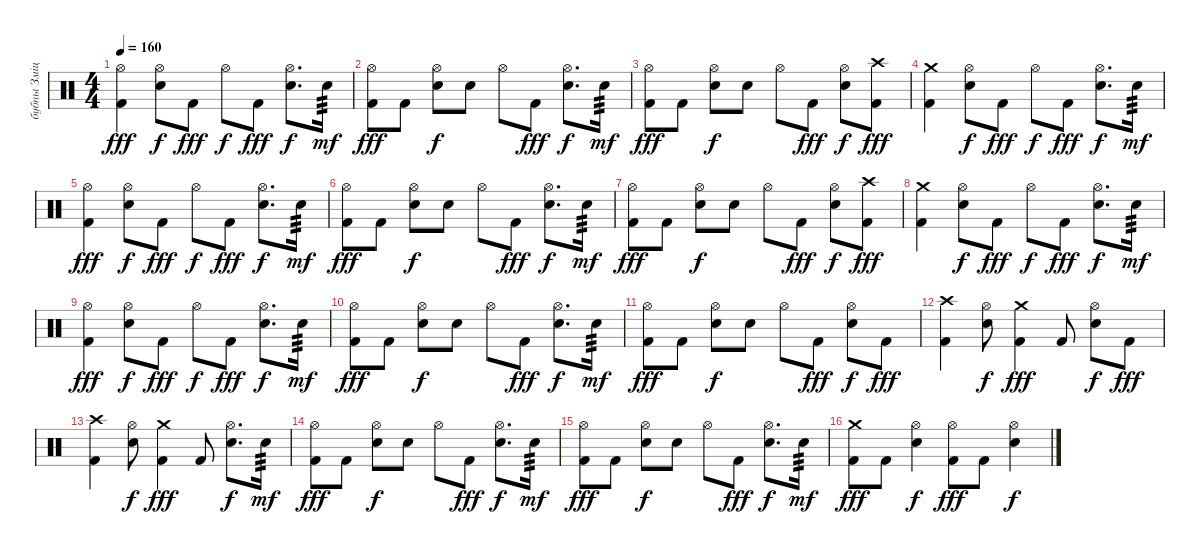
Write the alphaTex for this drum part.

\track ("бубны Змiцер" "бубны Змiц") {instrument percussion}
\staff {score}
\articulation defaults
\ts (4 4)
\tempo 160
\clef neutral
\ks c
("Hi-Hat (open)" "Kick (hit) 2").4{dy fff} ("Hi-Hat (open)" "Electric Snare (hit)").8{dy f} "Kick (hit) 2".8{dy fff} "Hi-Hat (open)".8{dy f} "Kick (hit) 2".8{dy fff} ("Hi-Hat (open)" "Electric Snare (hit)").8{d dy f} "Electric Snare (hit)".16{tp 3 dy mf} |
("Hi-Hat (open)" "Kick (hit) 2").8{dy fff} "Kick (hit) 2".8 ("Hi-Hat (open)" "Electric Snare (hit)").8{dy f} "Electric Snare (hit)".8 "Hi-Hat (open)".8 "Kick (hit) 2".8{dy fff} ("Hi-Hat (open)" "Electric Snare (hit)").8{d dy f} "Electric Snare (hit)".16{tp 3 dy mf} |
("Hi-Hat (open)" "Kick (hit) 2").8{dy fff} "Kick (hit) 2".8 ("Hi-Hat (open)" "Electric Snare (hit)").8{dy f} "Electric Snare (hit)".8 "Hi-Hat (open)".8 "Kick (hit) 2".8{dy fff} ("Hi-Hat (open)" "Electric Snare (hit)").8{dy f} ("Crash high (hit)" "Kick (hit) 2").8{dy fff} |
("Crash medium (hit)" "Kick (hit) 2").4 ("Hi-Hat (open)" "Electric Snare (hit)").8{dy f} "Kick (hit) 2".8{dy fff} "Hi-Hat (open)".8{dy f} "Kick (hit) 2".8{dy fff} ("Hi-Hat (open)" "Electric Snare (hit)").8{d dy f} "Electric Snare (hit)".16{tp 3 dy mf} |
("Hi-Hat (open)" "Kick (hit) 2").4{dy fff} ("Hi-Hat (open)" "Electric Snare (hit)").8{dy f} "Kick (hit) 2".8{dy fff} "Hi-Hat (open)".8{dy f} "Kick (hit) 2".8{dy fff} ("Hi-Hat (open)" "Electric Snare (hit)").8{d dy f} "Electric Snare (hit)".16{tp 3 dy mf} |
("Hi-Hat (open)" "Kick (hit) 2").8{dy fff} "Kick (hit) 2".8 ("Hi-Hat (open)" "Electric Snare (hit)").8{dy f} "Electric Snare (hit)".8 "Hi-Hat (open)".8 "Kick (hit) 2".8{dy fff} ("Hi-Hat (open)" "Electric Snare (hit)").8{d dy f} "Electric Snare (hit)".16{tp 3 dy mf} |
("Hi-Hat (open)" "Kick (hit) 2").8{dy fff} "Kick (hit) 2".8 ("Hi-Hat (open)" "Electric Snare (hit)").8{dy f} "Electric Snare (hit)".8 "Hi-Hat (open)".8 "Kick (hit) 2".8{dy fff} ("Hi-Hat (open)" "Electric Snare (hit)").8{dy f} ("Crash high (hit)" "Kick (hit) 2").8{dy fff} |
("Crash medium (hit)" "Kick (hit) 2").4 ("Hi-Hat (open)" "Electric Snare (hit)").8{dy f} "Kick (hit) 2".8{dy fff} "Hi-Hat (open)".8{dy f} "Kick (hit) 2".8{dy fff} ("Hi-Hat (open)" "Electric Snare (hit)").8{d dy f} "Electric Snare (hit)".16{tp 3 dy mf} |
("Hi-Hat (open)" "Kick (hit) 2").4{dy fff} ("Hi-Hat (open)" "Electric Snare (hit)").8{dy f} "Kick (hit) 2".8{dy fff} "Hi-Hat (open)".8{dy f} "Kick (hit) 2".8{dy fff} ("Hi-Hat (open)" "Electric Snare (hit)").8{d dy f} "Electric Snare (hit)".16{tp 3 dy mf} |
("Hi-Hat (open)" "Kick (hit) 2").8{dy fff} "Kick (hit) 2".8 ("Hi-Hat (open)" "Electric Snare (hit)").8{dy f} "Electric Snare (hit)".8 "Hi-Hat (open)".8 "Kick (hit) 2".8{dy fff} ("Hi-Hat (open)" "Electric Snare (hit)").8{d dy f} "Electric Snare (hit)".16{tp 3 dy mf} |
("Hi-Hat (open)" "Kick (hit) 2").8{dy fff} "Kick (hit) 2".8 ("Hi-Hat (open)" "Electric Snare (hit)").8{dy f} "Electric Snare (hit)".8 "Hi-Hat (open)".8 "Kick (hit) 2".8{dy fff} ("Hi-Hat (open)" "Electric Snare (hit)").8{dy f} "Kick (hit) 2".8{dy fff} |
("Crash high (hit)" "Kick (hit) 2").4 ("Hi-Hat (open)" "Electric Snare (hit)").8{dy f} ("Crash medium (hit)" "Kick (hit) 2").4{dy fff} "Kick (hit) 2".8 ("Hi-Hat (open)" "Electric Snare (hit)").8{dy f} "Kick (hit) 2".8{dy fff} |
("Crash high (hit)" "Kick (hit) 2").4 ("Hi-Hat (open)" "Electric Snare (hit)").8{dy f} ("Crash medium (hit)" "Kick (hit) 2").4{dy fff} "Kick (hit) 2".8 ("Hi-Hat (open)" "Electric Snare (hit)").8{d dy f} "Electric Snare (hit)".16{tp 3 dy mf} |
("Hi-Hat (open)" "Kick (hit) 2").8{dy fff} "Kick (hit) 2".8 ("Hi-Hat (open)" "Electric Snare (hit)").8{dy f} "Electric Snare (hit)".8 "Hi-Hat (open)".8 "Kick (hit) 2".8{dy fff} ("Hi-Hat (open)" "Electric Snare (hit)").8{d dy f} "Electric Snare (hit)".16{tp 3 dy mf} |
("Hi-Hat (open)" "Kick (hit) 2").8{dy fff} "Kick (hit) 2".8 ("Hi-Hat (open)" "Electric Snare (hit)").8{dy f} "Electric Snare (hit)".8 "Hi-Hat (open)".8 "Kick (hit) 2".8{dy fff} ("Hi-Hat (open)" "Electric Snare (hit)").8{d dy f} "Electric Snare (hit)".16{tp 3 dy mf} |
("Crash medium (hit)" "Kick (hit) 2").8{dy fff} "Kick (hit) 2".8 ("Hi-Hat (open)" "Electric Snare (hit)").4{dy f} ("Hi-Hat (open)" "Kick (hit) 2").8{dy fff} "Kick (hit) 2".8 ("Hi-Hat (open)" "Electric Snare (hit)").4{dy f}
